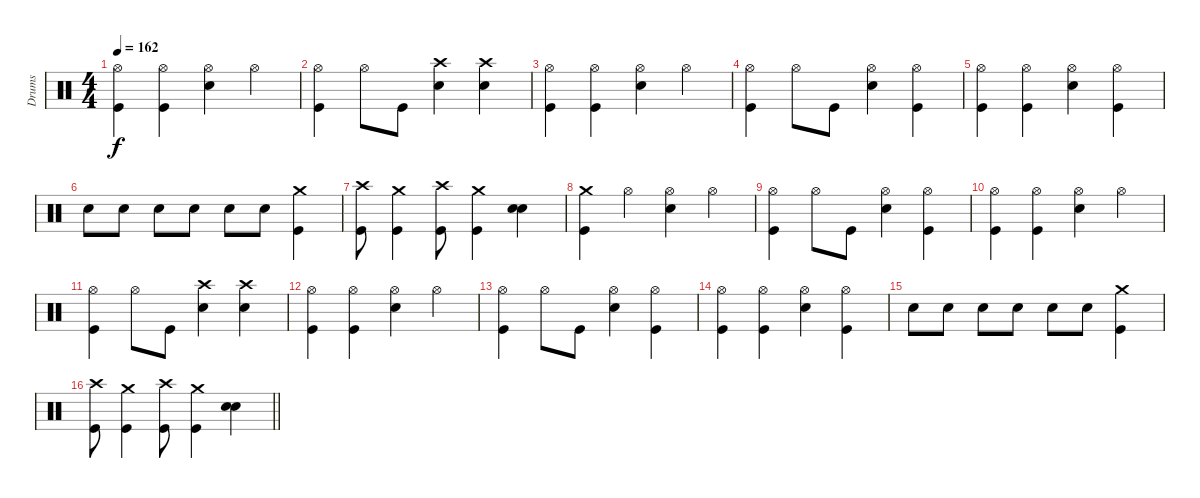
\track ("Drums" "Drums") {instrument percussion}
\staff {score}
\articulation defaults
\ts (4 4)
\tempo 162
\clef neutral
\ks c
("Hi-Hat (open)" "Kick (hit)").4{dy f} ("Hi-Hat (open)" "Kick (hit)").4 ("Hi-Hat (open)" "Snare (hit) 2").4 "Hi-Hat (open)".4 |
("Hi-Hat (open)" "Kick (hit)").4 "Hi-Hat (open)".8 "Kick (hit)".8 ("Crash high (hit)" "Snare (hit) 2").4 ("Crash high (hit)" "Snare (hit) 2").4 |
("Hi-Hat (open)" "Kick (hit)").4 ("Hi-Hat (open)" "Kick (hit)").4 ("Hi-Hat (open)" "Snare (hit) 2").4 "Hi-Hat (open)".4 |
("Hi-Hat (open)" "Kick (hit)").4 "Hi-Hat (open)".8 "Kick (hit)".8 ("Hi-Hat (open)" "Snare (hit) 2").4 ("Hi-Hat (open)" "Kick (hit)").4 |
("Hi-Hat (open)" "Kick (hit)").4 ("Hi-Hat (open)" "Kick (hit)").4 ("Hi-Hat (open)" "Snare (hit) 2").4 ("Hi-Hat (open)" "Kick (hit)").4 |
"Snare (hit) 2".8 "Snare (hit) 2".8 "Snare (hit) 2".8 "Snare (hit) 2".8 "Snare (hit) 2".8 "Snare (hit) 2".8 ("Crash medium (hit)" "Kick (hit)").4 |
("Crash high (hit)" "Kick (hit)").8 ("Crash medium (hit)" "Kick (hit)").4 ("Crash high (hit)" "Kick (hit)").8 ("Crash medium (hit)" "Kick (hit)").4 ("Snare (hit) 2" "Snare (hit) 2").4{bd 240} |
("Crash medium (hit)" "Kick (hit)").4 "Hi-Hat (open)".4 ("Hi-Hat (open)" "Snare (hit) 2").4 "Hi-Hat (open)".4 |
("Hi-Hat (open)" "Kick (hit)").4 "Hi-Hat (open)".8 "Kick (hit)".8 ("Hi-Hat (open)" "Snare (hit) 2").4 ("Hi-Hat (open)" "Kick (hit)").4 |
("Hi-Hat (open)" "Kick (hit)").4 ("Hi-Hat (open)" "Kick (hit)").4 ("Hi-Hat (open)" "Snare (hit) 2").4 "Hi-Hat (open)".4 |
("Hi-Hat (open)" "Kick (hit)").4 "Hi-Hat (open)".8 "Kick (hit)".8 ("Crash high (hit)" "Snare (hit) 2").4 ("Crash high (hit)" "Snare (hit) 2").4 |
("Hi-Hat (open)" "Kick (hit)").4 ("Hi-Hat (open)" "Kick (hit)").4 ("Hi-Hat (open)" "Snare (hit) 2").4 "Hi-Hat (open)".4 |
("Hi-Hat (open)" "Kick (hit)").4 "Hi-Hat (open)".8 "Kick (hit)".8 ("Hi-Hat (open)" "Snare (hit) 2").4 ("Hi-Hat (open)" "Kick (hit)").4 |
("Hi-Hat (open)" "Kick (hit)").4 ("Hi-Hat (open)" "Kick (hit)").4 ("Hi-Hat (open)" "Snare (hit) 2").4 ("Hi-Hat (open)" "Kick (hit)").4 |
"Snare (hit) 2".8 "Snare (hit) 2".8 "Snare (hit) 2".8 "Snare (hit) 2".8 "Snare (hit) 2".8 "Snare (hit) 2".8 ("Crash medium (hit)" "Kick (hit)").4 |
\barLineRight lightlight
("Crash high (hit)" "Kick (hit)").8 ("Crash medium (hit)" "Kick (hit)").4 ("Crash high (hit)" "Kick (hit)").8 ("Crash medium (hit)" "Kick (hit)").4 ("Snare (hit) 2" "Snare (hit) 2").4{bd 240}
